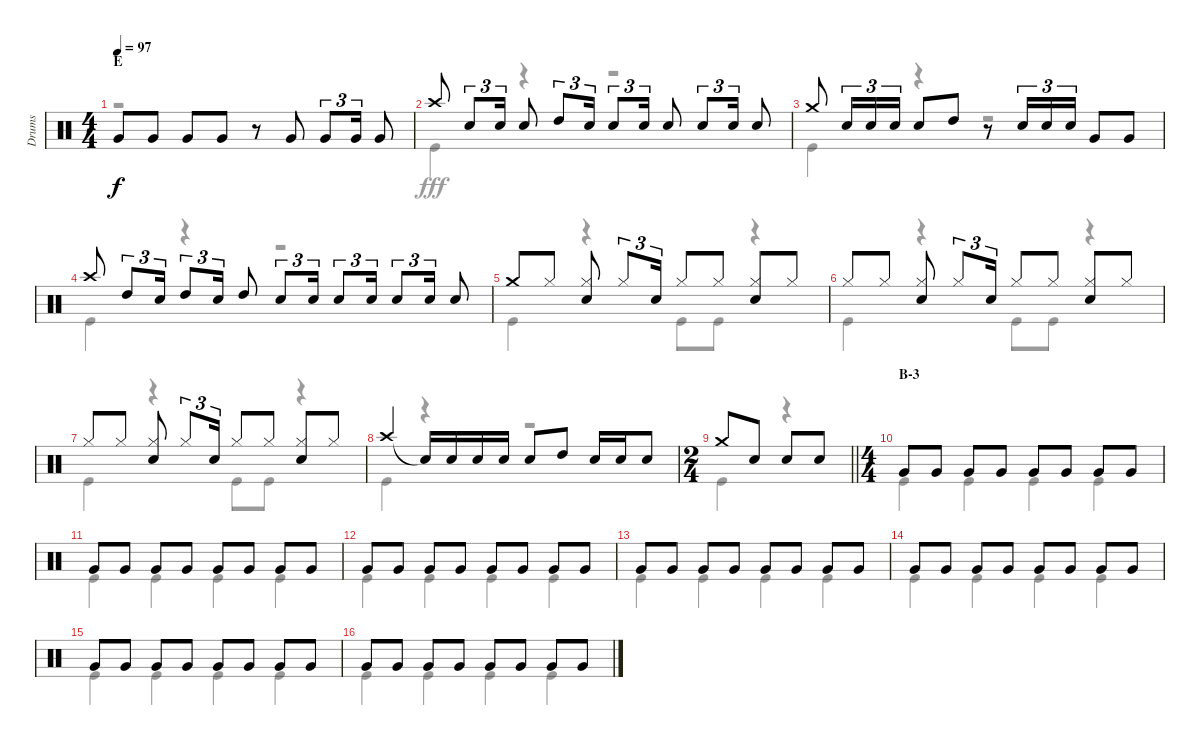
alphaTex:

\track ("Drums" "Drums") {instrument percussion}
\staff {score}
\articulation defaults
\voice
\ts (4 4)
\section ("" "E")
\tempo 97
\clef neutral
\ks c "Very Low Tom (hit)".8{dy f} "Very Low Tom (hit)".8 "Very Low Tom (hit)".8 "Very Low Tom (hit)".8
r.8 "Very Low Tom (hit)".8 "Very Low Tom (hit)".8{tu (3 2)} "Very Low Tom (hit)".16{tu (3 2)} "Very Low Tom (hit)".8 |
"Crash high (hit)".8 "Snare (hit) 2".8{tu (3 2)} "Snare (hit) 2".16{tu (3 2)} "Snare (hit) 2".8 "High Tom (hit)".8{tu (3 2)} "Snare (hit) 2".16{tu (3 2)} "Snare (hit) 2".8{tu (3 2)} "Snare (hit) 2".16{tu (3 2)} "Snare (hit) 2".8 "Snare (hit) 2".8{tu (3 2)} "Snare (hit) 2".16{tu (3 2)} "Snare (hit) 2".8 |
"Crash medium (hit)".8 "Snare (hit) 2".16{tu (3 2)} "Snare (hit) 2".16{tu (3 2)} "Snare (hit) 2".16{tu (3 2)} "Snare (hit) 2".8 "High Tom (hit)".8 r.8 "Snare (hit) 2".16{tu (3 2)} "Snare (hit) 2".16{tu (3 2)} "Snare (hit) 2".16{tu (3 2)} "Very Low Tom (hit)".8 "Very Low Tom (hit)".8 |
"Crash high (hit)".8 "High Tom (hit)".8{tu (3 2)} "Snare (hit) 2".16{tu (3 2)} "High Tom (hit)".8{tu (3 2)} "Snare (hit) 2".16{tu (3 2)} "High Tom (hit)".8 "Snare (hit) 2".8{tu (3 2)} "Snare (hit) 2".16{tu (3 2)} "Snare (hit) 2".8{tu (3 2)} "Snare (hit) 2".16{tu (3 2)} "Snare (hit) 2".8{tu (3 2)} "Snare (hit) 2".16{tu (3 2)} "Snare (hit) 2".8 |
"Crash medium (hit)".8 "Hi-Hat (closed)".8 ("Hi-Hat (closed)" "Snare (hit) 2").8 "Hi-Hat (closed)".8{tu (3 2)} "Snare (hit) 2".16{tu (3 2)} "Hi-Hat (closed)".8 "Hi-Hat (closed)".8 ("Hi-Hat (closed)" "Snare (hit) 2").8 "Hi-Hat (closed)".8 |
"Hi-Hat (closed)".8 "Hi-Hat (closed)".8 ("Hi-Hat (closed)" "Snare (hit) 2").8 "Hi-Hat (closed)".8{tu (3 2)} "Snare (hit) 2".16{tu (3 2)} "Hi-Hat (closed)".8 "Hi-Hat (closed)".8 ("Hi-Hat (closed)" "Snare (hit) 2").8 "Hi-Hat (closed)".8 |
"Hi-Hat (closed)".8 "Hi-Hat (closed)".8 ("Hi-Hat (closed)" "Snare (hit) 2").8 "Hi-Hat (closed)".8{tu (3 2)} "Snare (hit) 2".16{tu (3 2)} "Hi-Hat (closed)".8 "Hi-Hat (closed)".8 ("Hi-Hat (closed)" "Snare (hit) 2").8 "Hi-Hat (closed)".8 |
"Crash high (hit)".4 "Snare (hit)"{t}.16 "Snare (hit) 2".16 "Snare (hit) 2".16 "Snare (hit) 2".16 "Snare (hit) 2".8 "High Tom (hit)".8 "Snare (hit) 2".16 "Snare (hit) 2".16 "Snare (hit) 2".8 |
\ts (2 4)
\barLineRight lightlight "Crash medium (hit)".8 "Snare (hit) 2".8 "Snare (hit) 2".8 "Snare (hit) 2".8
|
\ts (4 4)
\section ("" "B-3")
"Very Low Tom (hit)".8 "Very Low Tom (hit)".8 "Very Low Tom (hit)".8 "Very Low Tom (hit)".8 "Very Low Tom (hit)".8 "Very Low Tom (hit)".8 "Very Low Tom (hit)".8 "Very Low Tom (hit)".8 |
"Very Low Tom (hit)".8 "Very Low Tom (hit)".8 "Very Low Tom (hit)".8 "Very Low Tom (hit)".8 "Very Low Tom (hit)".8 "Very Low Tom (hit)".8 "Very Low Tom (hit)".8 "Very Low Tom (hit)".8 |
"Very Low Tom (hit)".8 "Very Low Tom (hit)".8 "Very Low Tom (hit)".8 "Very Low Tom (hit)".8 "Very Low Tom (hit)".8 "Very Low Tom (hit)".8 "Very Low Tom (hit)".8 "Very Low Tom (hit)".8 |
"Very Low Tom (hit)".8 "Very Low Tom (hit)".8 "Very Low Tom (hit)".8 "Very Low Tom (hit)".8 "Very Low Tom (hit)".8 "Very Low Tom (hit)".8 "Very Low Tom (hit)".8 "Very Low Tom (hit)".8 |
"Very Low Tom (hit)".8 "Very Low Tom (hit)".8 "Very Low Tom (hit)".8 "Very Low Tom (hit)".8 "Very Low Tom (hit)".8 "Very Low Tom (hit)".8 "Very Low Tom (hit)".8 "Very Low Tom (hit)".8 |
"Very Low Tom (hit)".8 "Very Low Tom (hit)".8 "Very Low Tom (hit)".8 "Very Low Tom (hit)".8 "Very Low Tom (hit)".8 "Very Low Tom (hit)".8 "Very Low Tom (hit)".8 "Very Low Tom (hit)".8 |
"Very Low Tom (hit)".8 "Very Low Tom (hit)".8 "Very Low Tom (hit)".8 "Very Low Tom (hit)".8 "Very Low Tom (hit)".8 "Very Low Tom (hit)".8 "Very Low Tom (hit)".8 "Very Low Tom (hit)".8
\voice
\clef neutral
\ottava regular
\simile none
\ks c
r.1{dy fff} |
"Kick (hit)".4 r.4 r.2 |
"Kick (hit)".4 r.4 r.2 |
"Kick (hit)".4 r.4 r.2 |
"Kick (hit)".4 r.4 "Kick (hit)".8 "Kick (hit)".8 r.4 |
"Kick (hit)".4 r.4 "Kick (hit)".8 "Kick (hit)".8 r.4 |
"Kick (hit)".4 r.4 "Kick (hit)".8 "Kick (hit)".8 r.4 |
"Kick (hit)".4 r.4 r.2 |
\barLineRight lightlight "Kick (hit)".4
r.4 |
"Kick (hit)".4 "Kick (hit)".4 "Kick (hit)".4 "Kick (hit)".4 |
"Kick (hit)".4 "Kick (hit)".4 "Kick (hit)".4 "Kick (hit)".4 |
"Kick (hit)".4 "Kick (hit)".4 "Kick (hit)".4 "Kick (hit)".4 |
"Kick (hit)".4 "Kick (hit)".4 "Kick (hit)".4 "Kick (hit)".4 |
"Kick (hit)".4 "Kick (hit)".4 "Kick (hit)".4 "Kick (hit)".4 |
"Kick (hit)".4 "Kick (hit)".4 "Kick (hit)".4 "Kick (hit)".4 |
"Kick (hit)".4 "Kick (hit)".4 "Kick (hit)".4 "Kick (hit)".4
